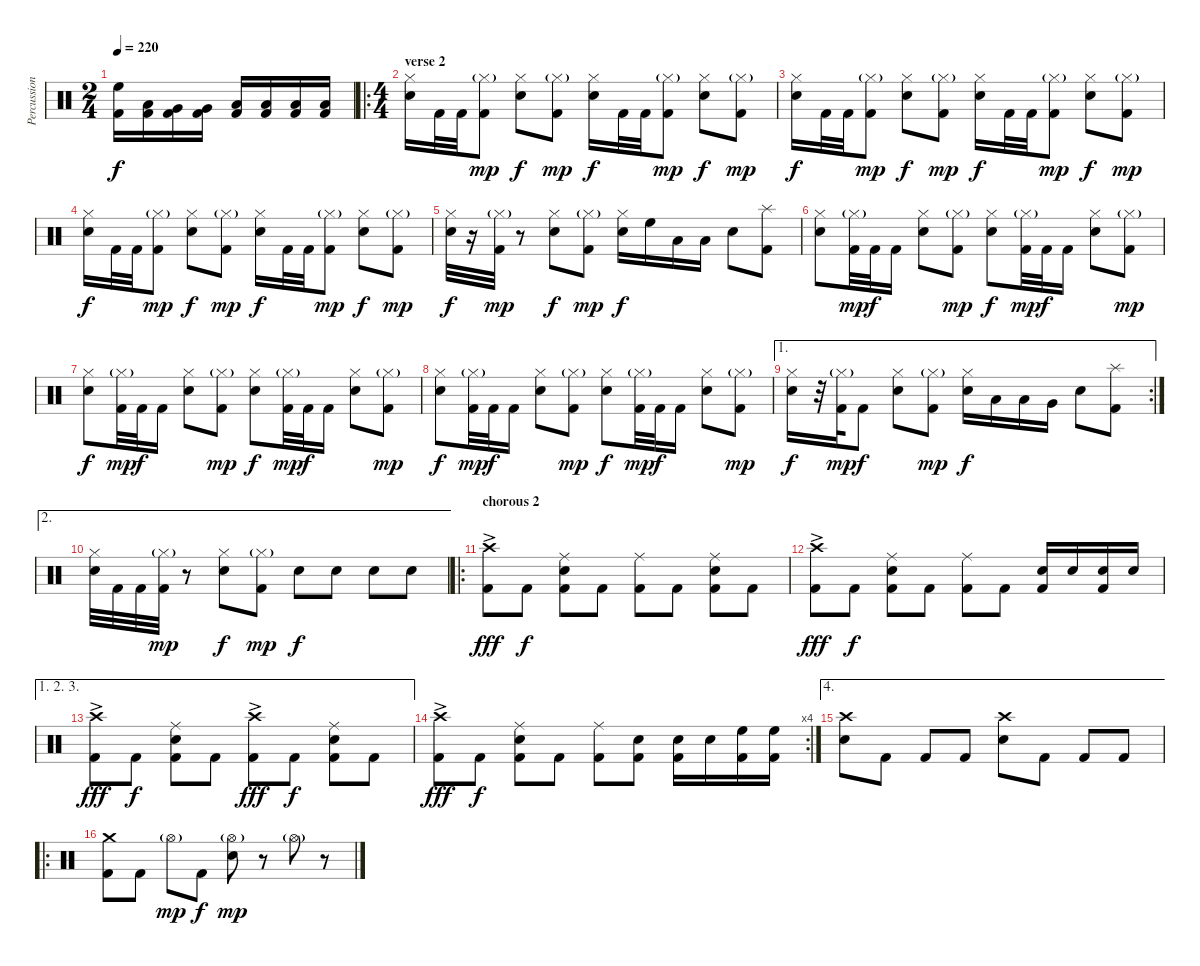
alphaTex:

\track ("Percussion" "Percussion") {instrument percussion}
\staff {score}
\articulation defaults
\ts (2 4)
\tempo 220
\clef neutral
\ks c
("High Floor Tom (hit)" "Kick (hit) 2").16{dy f} ("Low Tom (hit)" "Kick (hit) 2").16 ("Very Low Tom (hit)" "Kick (hit) 2").16 ("Very Low Tom (hit)" "Kick (hit) 2").16 ("Low Tom (hit)" "Kick (hit) 2").16 ("Low Tom (hit)" "Kick (hit) 2").16 ("Low Floor Tom (hit)" "Kick (hit) 2").16 ("Low Floor Tom (hit)" "Kick (hit) 2").16 |
\ro
\ts (4 4)
\section ("" "verse 2")
("Hi-Hat (closed)" "Electric Snare (hit)").16 "Kick (hit) 2".32 "Kick (hit) 2".32 ("Hi-Hat (closed)"{g} "Kick (hit) 2").8{dy mp} ("Hi-Hat (closed)" "Electric Snare (hit)").8{dy f} ("Hi-Hat (closed)"{g} "Kick (hit) 2").8{dy mp} ("Hi-Hat (closed)" "Electric Snare (hit)").16{dy f} "Kick (hit) 2".32 "Kick (hit) 2".32 ("Hi-Hat (closed)"{g} "Kick (hit) 2").8{dy mp} ("Hi-Hat (closed)" "Electric Snare (hit)").8{dy f} ("Hi-Hat (closed)"{g} "Kick (hit) 2").8{dy mp} |
("Hi-Hat (closed)" "Electric Snare (hit)").16{dy f} "Kick (hit) 2".32 "Kick (hit) 2".32 ("Hi-Hat (closed)"{g} "Kick (hit) 2").8{dy mp} ("Hi-Hat (closed)" "Electric Snare (hit)").8{dy f} ("Hi-Hat (closed)"{g} "Kick (hit) 2").8{dy mp} ("Hi-Hat (closed)" "Electric Snare (hit)").16{dy f} "Kick (hit) 2".32 "Kick (hit) 2".32 ("Hi-Hat (closed)"{g} "Kick (hit) 2").8{dy mp} ("Hi-Hat (closed)" "Electric Snare (hit)").8{dy f} ("Hi-Hat (closed)"{g} "Kick (hit) 2").8{dy mp} |
("Hi-Hat (closed)" "Electric Snare (hit)").16{dy f} "Kick (hit) 2".32 "Kick (hit) 2".32 ("Hi-Hat (closed)"{g} "Kick (hit) 2").8{dy mp} ("Hi-Hat (closed)" "Electric Snare (hit)").8{dy f} ("Hi-Hat (closed)"{g} "Kick (hit) 2").8{dy mp} ("Hi-Hat (closed)" "Electric Snare (hit)").16{dy f} "Kick (hit) 2".32 "Kick (hit) 2".32 ("Hi-Hat (closed)"{g} "Kick (hit) 2").8{dy mp} ("Hi-Hat (closed)" "Electric Snare (hit)").8{dy f} ("Hi-Hat (closed)"{g} "Kick (hit) 2").8{dy mp} |
("Hi-Hat (closed)" "Electric Snare (hit)").32{dy f} r.16 ("Hi-Hat (closed)"{g} "Kick (hit) 2").32{dy mp} r.8 ("Hi-Hat (closed)" "Electric Snare (hit)").8{dy f} ("Hi-Hat (closed)"{g} "Kick (hit) 2").8{dy mp} ("Hi-Hat (closed)" "Electric Snare (hit)").16{dy f} "High Floor Tom (hit)".16 "Low Tom (hit)".16 "Low Tom (hit)".16 "Electric Snare (hit)".8 ("Splash (hit)" "Kick (hit) 2").8 |
("Hi-Hat (closed)" "Electric Snare (hit)").8 ("Hi-Hat (closed)"{g} "Kick (hit) 2").32{dy mp} "Kick (hit) 2".32{dy f} "Kick (hit) 2".16 ("Hi-Hat (closed)" "Electric Snare (hit)").8 ("Hi-Hat (closed)"{g} "Kick (hit) 2").8{dy mp} ("Hi-Hat (closed)" "Electric Snare (hit)").8{dy f} ("Hi-Hat (closed)"{g} "Kick (hit) 2").32{dy mp} "Kick (hit) 2".32{dy f} "Kick (hit) 2".16 ("Hi-Hat (closed)" "Electric Snare (hit)").8 ("Hi-Hat (closed)"{g} "Kick (hit) 2").8{dy mp} |
("Hi-Hat (closed)" "Electric Snare (hit)").8{dy f} ("Hi-Hat (closed)"{g} "Kick (hit) 2").32{dy mp} "Kick (hit) 2".32{dy f} "Kick (hit) 2".16 ("Hi-Hat (closed)" "Electric Snare (hit)").8 ("Hi-Hat (closed)"{g} "Kick (hit) 2").8{dy mp} ("Hi-Hat (closed)" "Electric Snare (hit)").8{dy f} ("Hi-Hat (closed)"{g} "Kick (hit) 2").32{dy mp} "Kick (hit) 2".32{dy f} "Kick (hit) 2".16 ("Hi-Hat (closed)" "Electric Snare (hit)").8 ("Hi-Hat (closed)"{g} "Kick (hit) 2").8{dy mp} |
("Hi-Hat (closed)" "Electric Snare (hit)").8{dy f} ("Hi-Hat (closed)"{g} "Kick (hit) 2").32{dy mp} "Kick (hit) 2".32{dy f} "Kick (hit) 2".16 ("Hi-Hat (closed)" "Electric Snare (hit)").8 ("Hi-Hat (closed)"{g} "Kick (hit) 2").8{dy mp} ("Hi-Hat (closed)" "Electric Snare (hit)").8{dy f} ("Hi-Hat (closed)"{g} "Kick (hit) 2").32{dy mp} "Kick (hit) 2".32{dy f} "Kick (hit) 2".16 ("Hi-Hat (closed)" "Electric Snare (hit)").8 ("Hi-Hat (closed)"{g} "Kick (hit) 2").8{dy mp} |
\ae 1
\rc 2
("Hi-Hat (closed)" "Electric Snare (hit)").16{dy f} r.32 ("Hi-Hat (closed)"{g} "Kick (hit) 2").32{dy mp} "Kick (hit) 2".8{dy f} ("Hi-Hat (closed)" "Electric Snare (hit)").8 ("Hi-Hat (closed)"{g} "Kick (hit) 2").8{dy mp} ("Hi-Hat (closed)" "Electric Snare (hit)").16{dy f} "Low Tom (hit)".16 "Low Tom (hit)".16 "Very Low Tom (hit)".16 "Electric Snare (hit)".8 ("Splash (hit)" "Kick (hit) 2").8 |
\ae 2
("Hi-Hat (closed)" "Electric Snare (hit)").32 "Kick (hit) 2".32 "Kick (hit) 2".32 ("Hi-Hat (closed)"{g} "Kick (hit) 2").32{dy mp} r.8 ("Hi-Hat (closed)" "Electric Snare (hit)").8{dy f} ("Hi-Hat (closed)"{g} "Kick (hit) 2").8{dy mp} "Electric Snare (hit)".8{dy f} "Electric Snare (hit)".8 "Electric Snare (hit)".8 "Electric Snare (hit)".8 |
\ro
\section ("" "chorous 2")
("Crash high (hit)"{ac} "Kick (hit) 2").8{dy fff} "Kick (hit) 2".8{dy f} ("Ride (middle)" "Electric Snare (hit)" "Kick (hit) 2").8 "Kick (hit) 2".8 ("Ride (middle)" "Kick (hit) 2").8 "Kick (hit) 2".8 ("Ride (middle)" "Electric Snare (hit)" "Kick (hit) 2").8 "Kick (hit) 2".8 |
("Crash high (hit)"{ac} "Kick (hit) 2").8{dy fff} "Kick (hit) 2".8{dy f} ("Ride (middle)" "Electric Snare (hit)" "Kick (hit) 2").8 "Kick (hit) 2".8 ("Ride (middle)" "Kick (hit) 2").8 "Kick (hit) 2".8 ("Electric Snare (hit)" "Kick (hit) 2").16 "Electric Snare (hit)".16 ("Electric Snare (hit)" "Kick (hit) 2").16 "Electric Snare (hit)".16 |
\ae (1 2 3)
("Crash high (hit)"{ac} "Kick (hit) 2").8{dy fff} "Kick (hit) 2".8{dy f} ("Ride (middle)" "Electric Snare (hit)" "Kick (hit) 2").8 "Kick (hit) 2".8 ("Crash high (hit)"{ac} "Kick (hit) 2").8{dy fff} "Kick (hit) 2".8{dy f} ("Ride (middle)" "Electric Snare (hit)" "Kick (hit) 2").8 "Kick (hit) 2".8 |
\rc 4
("Crash high (hit)"{ac} "Kick (hit) 2").8{dy fff} "Kick (hit) 2".8{dy f} ("Ride (middle)" "Electric Snare (hit)" "Kick (hit) 2").8 "Kick (hit) 2".8 ("Ride (middle)" "Kick (hit) 2").8 ("Electric Snare (hit)" "Kick (hit) 2").8 ("Electric Snare (hit)" "Kick (hit) 2").16 "Electric Snare (hit)".16 ("High Floor Tom (hit)" "Kick (hit) 2").16 ("High Floor Tom (hit)" "Kick (hit) 2").16 |
\ae 4
("Crash high (hit)" "Electric Snare (hit)").8 "Kick (hit) 2".8 "Kick (hit) 2".8 "Kick (hit) 2".8 ("Crash high (hit)" "Electric Snare (hit)").8 "Kick (hit) 2".8 "Kick (hit) 2".8 "Kick (hit) 2".8 |
\ro
("Crash medium (hit)" "Kick (hit) 2").8 "Kick (hit) 2".8 "Hi-Hat (open)"{g}.8{dy mp} "Kick (hit) 2".8{dy f} ("Hi-Hat (open)"{g} "Electric Snare (hit)").8{dy mp} r.8 "Hi-Hat (open)"{g}.8 r.8
